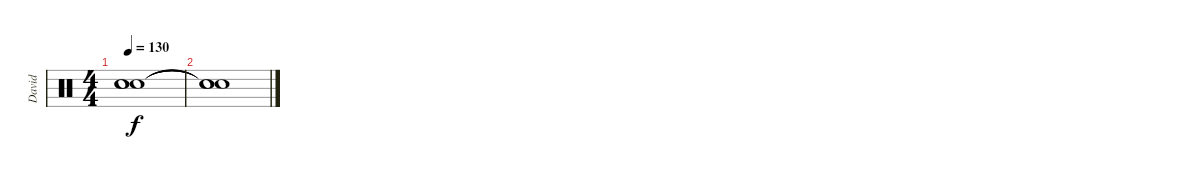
\track ("David" "David") {instrument percussion}
\staff {score}
\articulation defaults
\ts (4 4)
\tempo 130
\clef neutral
\ks c
("Snare (hit)"{t} "Snare (hit)"{t} "Snare (hit)"{t}).1{dy f} |
("Snare (hit)"{t} "Snare (hit)"{t} "Snare (hit)"{t}).1
